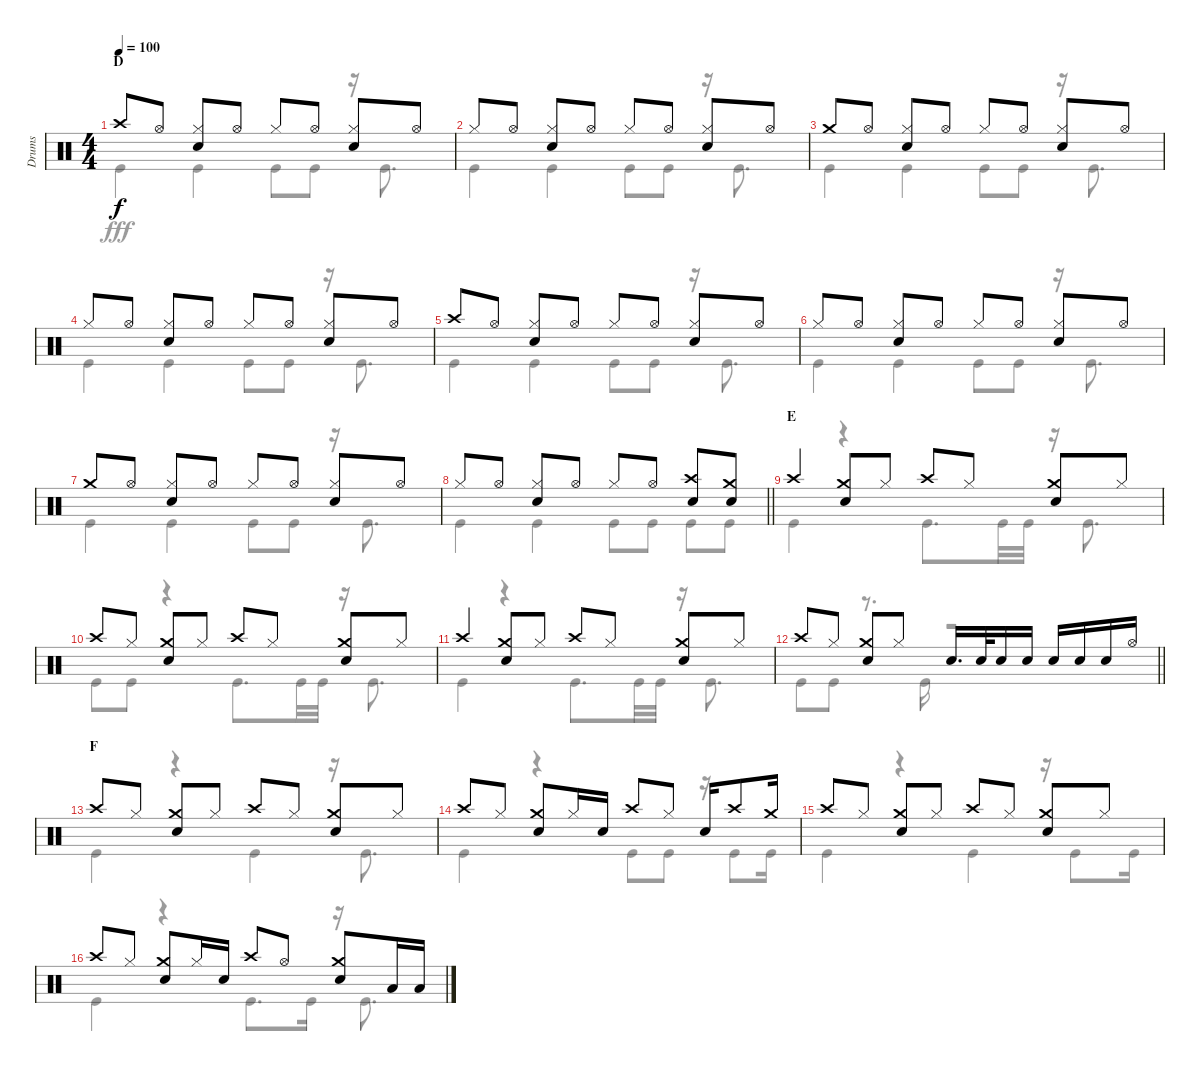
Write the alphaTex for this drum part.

\track ("Drums" "Drums") {instrument percussion}
\staff {score}
\articulation defaults
\voice
\ts (4 4)
\section ("" "D")
\tempo 100
\clef neutral
\ks c "Crash high (hit)".8{dy f} "Hi-Hat (open)".8
("Hi-Hat (closed)" "Snare (hit) 2").8 "Hi-Hat (open)".8 "Hi-Hat (closed)".8 "Hi-Hat (open)".8 ("Hi-Hat (closed)" "Snare (hit) 2").8 "Hi-Hat (open)".8 |
"Hi-Hat (closed)".8 "Hi-Hat (open)".8 ("Hi-Hat (closed)" "Snare (hit) 2").8 "Hi-Hat (open)".8 "Hi-Hat (closed)".8 "Hi-Hat (open)".8 ("Hi-Hat (closed)" "Snare (hit) 2").8 "Hi-Hat (open)".8 |
"Crash medium (hit)".8 "Hi-Hat (open)".8 ("Hi-Hat (closed)" "Snare (hit) 2").8 "Hi-Hat (open)".8 "Hi-Hat (closed)".8 "Hi-Hat (open)".8 ("Hi-Hat (closed)" "Snare (hit) 2").8 "Hi-Hat (open)".8 |
"Hi-Hat (closed)".8 "Hi-Hat (open)".8 ("Hi-Hat (closed)" "Snare (hit) 2").8 "Hi-Hat (open)".8 "Hi-Hat (closed)".8 "Hi-Hat (open)".8 ("Hi-Hat (closed)" "Snare (hit) 2").8 "Hi-Hat (open)".8 |
"Crash high (hit)".8 "Hi-Hat (open)".8 ("Hi-Hat (closed)" "Snare (hit) 2").8 "Hi-Hat (open)".8 "Hi-Hat (closed)".8 "Hi-Hat (open)".8 ("Hi-Hat (closed)" "Snare (hit) 2").8 "Hi-Hat (open)".8 |
"Hi-Hat (closed)".8 "Hi-Hat (open)".8 ("Hi-Hat (closed)" "Snare (hit) 2").8 "Hi-Hat (open)".8 "Hi-Hat (closed)".8 "Hi-Hat (open)".8 ("Hi-Hat (closed)" "Snare (hit) 2").8 "Hi-Hat (open)".8 |
"Crash medium (hit)".8 "Hi-Hat (open)".8 ("Hi-Hat (closed)" "Snare (hit) 2").8 "Hi-Hat (open)".8 "Hi-Hat (closed)".8 "Hi-Hat (open)".8 ("Hi-Hat (closed)" "Snare (hit) 2").8 "Hi-Hat (open)".8 |
\barLineRight lightlight "Hi-Hat (closed)".8 "Hi-Hat (open)".8
("Hi-Hat (closed)" "Snare (hit) 2").8 "Hi-Hat (open)".8 "Hi-Hat (closed)".8 "Hi-Hat (open)".8 ("Crash high (hit)" "Snare (hit) 2").8 ("Crash medium (hit)" "Snare (hit) 2").8 |
\section ("" "E")
"Crash high (hit)".4 ("Crash medium (hit)" "Snare (hit) 2").8 "Hi-Hat (closed)".8 "Crash high (hit)".8 "Hi-Hat (closed)".8 ("Crash medium (hit)" "Snare (hit) 2").8 "Hi-Hat (closed)".8 |
"Crash high (hit)".8 "Hi-Hat (closed)".8 ("Crash medium (hit)" "Snare (hit) 2").8 "Hi-Hat (closed)".8 "Crash high (hit)".8 "Hi-Hat (closed)".8 ("Crash medium (hit)" "Snare (hit) 2").8 "Hi-Hat (closed)".8 |
"Crash high (hit)".4 ("Crash medium (hit)" "Snare (hit) 2").8 "Hi-Hat (closed)".8 "Crash high (hit)".8 "Hi-Hat (closed)".8 ("Crash medium (hit)" "Snare (hit) 2").8 "Hi-Hat (closed)".8 |
\barLineRight lightlight "Crash high (hit)".8 "Hi-Hat (closed)".8
("Crash medium (hit)" "Snare (hit) 2").8 "Hi-Hat (closed)".8 "Snare (hit) 2".16{d} "Snare (hit) 2".32 "Snare (hit) 2".16 "Snare (hit) 2".16 "Snare (hit) 2".16 "Snare (hit) 2".16 "Snare (hit) 2".16 "Hi-Hat (open)".16 |
\section ("" "F")
"Crash high (hit)".8 "Hi-Hat (closed)".8 ("Crash medium (hit)" "Snare (hit) 2").8 "Hi-Hat (closed)".8 "Crash high (hit)".8 "Hi-Hat (closed)".8 ("Crash medium (hit)" "Snare (hit) 2").8 "Hi-Hat (closed)".8 |
"Crash high (hit)".8 "Hi-Hat (closed)".8 ("Crash medium (hit)" "Snare (hit) 2").8 "Hi-Hat (closed)".16 "Snare (hit) 2".16 "Crash high (hit)".8 "Hi-Hat (closed)".8 "Snare (hit) 2".16 "Crash high (hit)".8 "Crash medium (hit)".16 |
"Crash high (hit)".8 "Hi-Hat (closed)".8 ("Crash medium (hit)" "Snare (hit) 2").8 "Hi-Hat (closed)".8 "Crash high (hit)".8 "Hi-Hat (closed)".8 ("Crash medium (hit)" "Snare (hit) 2").8 "Hi-Hat (closed)".8 |
"Crash high (hit)".8 "Hi-Hat (closed)".8 ("Crash medium (hit)" "Snare (hit) 2").8 "Hi-Hat (closed)".16 "Snare (hit) 2".16 "Crash high (hit)".8 "Hi-Hat (open)".8 ("Crash medium (hit)" "Snare (hit) 2").8 "Low Tom (hit)".16 "Low Tom (hit)".16
\voice
\clef neutral
\ottava regular
\simile none
\ks c "Kick (hit)".4{dy fff} "Kick (hit)".4 "Kick (hit)".8 "Kick (hit)".8
r.16 "Kick (hit)".8{d} |
"Kick (hit)".4 "Kick (hit)".4 "Kick (hit)".8 "Kick (hit)".8 r.16 "Kick (hit)".8{d} |
"Kick (hit)".4 "Kick (hit)".4 "Kick (hit)".8 "Kick (hit)".8 r.16 "Kick (hit)".8{d} |
"Kick (hit)".4 "Kick (hit)".4 "Kick (hit)".8 "Kick (hit)".8 r.16 "Kick (hit)".8{d} |
"Kick (hit)".4 "Kick (hit)".4 "Kick (hit)".8 "Kick (hit)".8 r.16 "Kick (hit)".8{d} |
"Kick (hit)".4 "Kick (hit)".4 "Kick (hit)".8 "Kick (hit)".8 r.16 "Kick (hit)".8{d} |
"Kick (hit)".4 "Kick (hit)".4 "Kick (hit)".8 "Kick (hit)".8 r.16 "Kick (hit)".8{d} |
\barLineRight lightlight "Kick (hit)".4 "Kick (hit)".4 "Kick (hit)".8 "Kick (hit)".8 "Kick (hit)".8 "Kick (hit)".8
|
"Kick (hit)".4 r.4 "Kick (hit)".8{d} "Kick (hit)".32 "Kick (hit)".32 r.16 "Kick (hit)".8{d} |
"Kick (hit)".8 "Kick (hit)".8 r.4 "Kick (hit)".8{d} "Kick (hit)".32 "Kick (hit)".32 r.16 "Kick (hit)".8{d} |
"Kick (hit)".4 r.4 "Kick (hit)".8{d} "Kick (hit)".32 "Kick (hit)".32 r.16 "Kick (hit)".8{d} |
\barLineRight lightlight "Kick (hit)".8 "Kick (hit)".8
r.8{d} "Kick (hit)".16 r.2 |
"Kick (hit)".4 r.4 "Kick (hit)".4 r.16 "Kick (hit)".8{d} |
"Kick (hit)".4 r.4 "Kick (hit)".8 "Kick (hit)".8 r.16 "Kick (hit)".8 "Kick (hit)".16 |
"Kick (hit)".4 r.4 "Kick (hit)".4 r.16 "Kick (hit)".8 "Kick (hit)".16 |
"Kick (hit)".4 r.4 "Kick (hit)".8{d} "Kick (hit)".16 r.16 "Kick (hit)".8{d}
